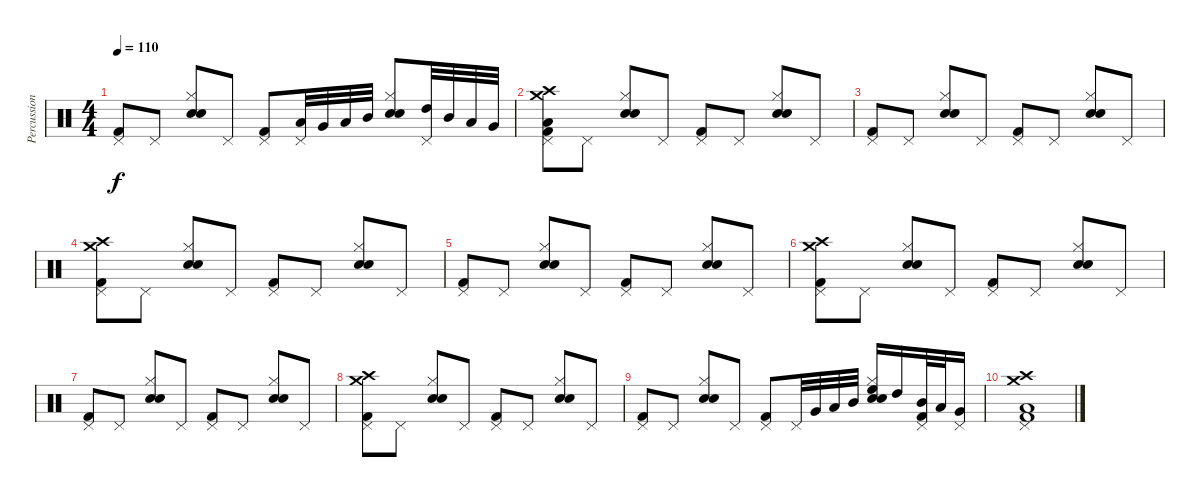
\track ("Percussion" "Percussion") {instrument percussion}
\staff {score}
\articulation defaults
\ts (4 4)
\tempo 110
\clef neutral
\ks c
("Pedal Hi-Hat (hit)" "Kick (hit) 2").8{dy f} "Pedal Hi-Hat (hit)".8 ("Electric Snare (hit)" "Hi-Hat (closed)" "Snare (hit) 2").8 "Pedal Hi-Hat (hit)".8 ("Pedal Hi-Hat (hit)" "Kick (hit) 2").8 ("Low Floor Tom (hit)" "Pedal Hi-Hat (hit)").32 "Very Low Tom (hit)".32 "Low Tom (hit)".32 "Mid Tom (hit)".32 ("Electric Snare (hit)" "Hi-Hat (closed)" "Snare (hit) 2").8 ("High Tom (hit)" "Pedal Hi-Hat (hit)").32 "Mid Tom (hit)".32 "Low Tom (hit)".32 "Very Low Tom (hit)".32 |
("Low Floor Tom (hit)" "Crash medium (hit)" "Crash high (hit)" "Pedal Hi-Hat (hit)" "Kick (hit) 2").8 "Pedal Hi-Hat (hit)".8 ("Electric Snare (hit)" "Hi-Hat (closed)" "Snare (hit) 2").8 "Pedal Hi-Hat (hit)".8 ("Pedal Hi-Hat (hit)" "Kick (hit) 2").8 "Pedal Hi-Hat (hit)".8 ("Electric Snare (hit)" "Hi-Hat (closed)" "Snare (hit) 2").8 "Pedal Hi-Hat (hit)".8 |
("Pedal Hi-Hat (hit)" "Kick (hit) 2").8 "Pedal Hi-Hat (hit)".8 ("Electric Snare (hit)" "Hi-Hat (closed)" "Snare (hit) 2").8 "Pedal Hi-Hat (hit)".8 ("Pedal Hi-Hat (hit)" "Kick (hit) 2").8 "Pedal Hi-Hat (hit)".8 ("Electric Snare (hit)" "Hi-Hat (closed)" "Snare (hit) 2").8 "Pedal Hi-Hat (hit)".8 |
("Crash medium (hit)" "Crash high (hit)" "Pedal Hi-Hat (hit)" "Kick (hit) 2").8 "Pedal Hi-Hat (hit)".8 ("Electric Snare (hit)" "Hi-Hat (closed)" "Snare (hit) 2").8 "Pedal Hi-Hat (hit)".8 ("Pedal Hi-Hat (hit)" "Kick (hit) 2").8 "Pedal Hi-Hat (hit)".8 ("Electric Snare (hit)" "Hi-Hat (closed)" "Snare (hit) 2").8 "Pedal Hi-Hat (hit)".8 |
("Pedal Hi-Hat (hit)" "Kick (hit) 2").8 "Pedal Hi-Hat (hit)".8 ("Electric Snare (hit)" "Hi-Hat (closed)" "Snare (hit) 2").8 "Pedal Hi-Hat (hit)".8 ("Pedal Hi-Hat (hit)" "Kick (hit) 2").8 "Pedal Hi-Hat (hit)".8 ("Electric Snare (hit)" "Hi-Hat (closed)" "Snare (hit) 2").8 "Pedal Hi-Hat (hit)".8 |
("Crash medium (hit)" "Crash high (hit)" "Pedal Hi-Hat (hit)" "Kick (hit) 2").8 "Pedal Hi-Hat (hit)".8 ("Electric Snare (hit)" "Hi-Hat (closed)" "Snare (hit) 2").8 "Pedal Hi-Hat (hit)".8 ("Pedal Hi-Hat (hit)" "Kick (hit) 2").8 "Pedal Hi-Hat (hit)".8 ("Electric Snare (hit)" "Hi-Hat (closed)" "Snare (hit) 2").8 "Pedal Hi-Hat (hit)".8 |
("Pedal Hi-Hat (hit)" "Kick (hit) 2").8 "Pedal Hi-Hat (hit)".8 ("Electric Snare (hit)" "Hi-Hat (closed)" "Snare (hit) 2").8 "Pedal Hi-Hat (hit)".8 ("Pedal Hi-Hat (hit)" "Kick (hit) 2").8 "Pedal Hi-Hat (hit)".8 ("Electric Snare (hit)" "Hi-Hat (closed)" "Snare (hit) 2").8 "Pedal Hi-Hat (hit)".8 |
("Crash medium (hit)" "Crash high (hit)" "Pedal Hi-Hat (hit)" "Kick (hit) 2").8 "Pedal Hi-Hat (hit)".8 ("Electric Snare (hit)" "Hi-Hat (closed)" "Snare (hit) 2").8 "Pedal Hi-Hat (hit)".8 ("Pedal Hi-Hat (hit)" "Kick (hit) 2").8 "Pedal Hi-Hat (hit)".8 ("Electric Snare (hit)" "Hi-Hat (closed)" "Snare (hit) 2").8 "Pedal Hi-Hat (hit)".8 |
("Pedal Hi-Hat (hit)" "Kick (hit) 2").8 "Pedal Hi-Hat (hit)".8 ("Electric Snare (hit)" "Hi-Hat (closed)" "Snare (hit) 2").8 "Pedal Hi-Hat (hit)".8 ("Pedal Hi-Hat (hit)" "Kick (hit) 2").8 "Pedal Hi-Hat (hit)".32 "Very Low Tom (hit)".32 "Low Tom (hit)".32 "Mid Tom (hit)".32 ("High Floor Tom (hit)" "Electric Snare (hit)" "Hi-Hat (closed)" "Snare (hit) 2").16 "High Tom (hit)".16 ("Mid Tom (hit)" "Pedal Hi-Hat (hit)" "Kick (hit) 2").32 "Low Tom (hit)".32 ("Very Low Tom (hit)" "Pedal Hi-Hat (hit)").16 |
("Low Floor Tom (hit)" "Crash medium (hit)" "Crash high (hit)" "Pedal Hi-Hat (hit)" "Kick (hit) 2").1
